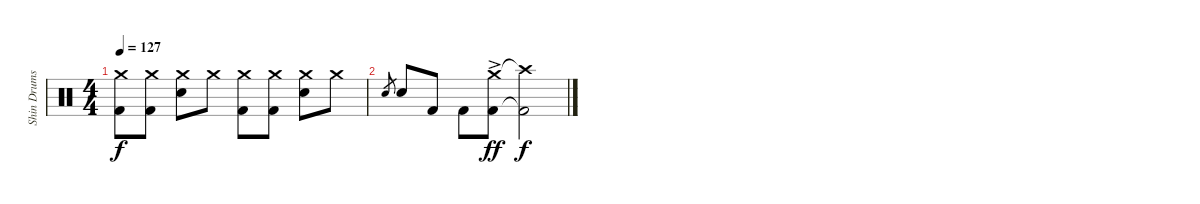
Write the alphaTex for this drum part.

\track ("Shin Drums" "Shin Drums") {instrument percussion}
\staff {score}
\articulation defaults
\ts (4 4)
\tempo 127
\clef neutral
\ks c
("Crash medium (hit)" "Kick (hit) 2").8{dy f} ("Crash medium (hit)" "Kick (hit) 2").8 ("Crash medium (hit)" "Snare (hit) 2").8 "Crash medium (hit)".8 ("Crash medium (hit)" "Kick (hit) 2").8 ("Crash medium (hit)" "Kick (hit) 2").8 ("Crash medium (hit)" "Snare (hit) 2").8 "Crash medium (hit)".8 |
"Snare (hit) 2".8{gr} "Snare (hit) 2".8 "Kick (hit) 2".8 "Kick (hit) 2".8 ("Crash medium (hit)"{ac} "Kick (hit) 2").8{dy ff} ("Crash high (hit)"{t} "Kick (hit) 2"{t}).2{dy f}
